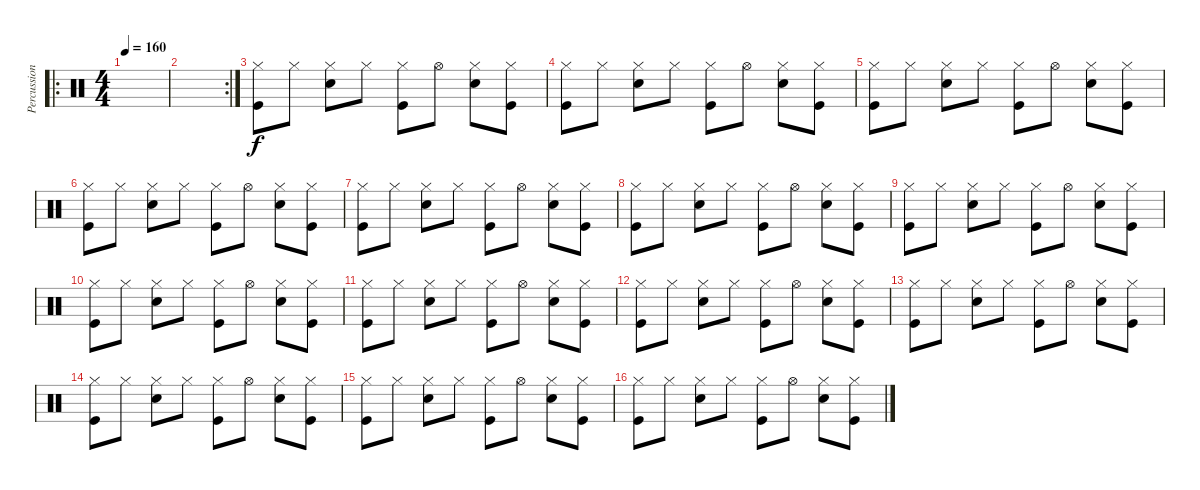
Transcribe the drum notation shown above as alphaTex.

\track ("Percussions" "Percussion") {instrument percussion}
\staff {score}
\articulation defaults
\ro
\ts (4 4)
\tempo 160
\clef neutral
\ks c
|
\rc 2
|
("Kick (hit)" "Hi-Hat (closed)").8 "Hi-Hat (closed)".8 ("Snare (hit) 2" "Hi-Hat (closed)").8 "Hi-Hat (closed)".8 ("Kick (hit)" "Hi-Hat (closed)").8 "Hi-Hat (open)".8 ("Snare (hit) 2" "Hi-Hat (closed)").8 ("Kick (hit)" "Hi-Hat (closed)").8 |
("Kick (hit)" "Hi-Hat (closed)").8 "Hi-Hat (closed)".8 ("Snare (hit) 2" "Hi-Hat (closed)").8 "Hi-Hat (closed)".8 ("Kick (hit)" "Hi-Hat (closed)").8 "Hi-Hat (open)".8 ("Snare (hit) 2" "Hi-Hat (closed)").8 ("Kick (hit)" "Hi-Hat (closed)").8 |
("Kick (hit)" "Hi-Hat (closed)").8 "Hi-Hat (closed)".8 ("Snare (hit) 2" "Hi-Hat (closed)").8 "Hi-Hat (closed)".8 ("Kick (hit)" "Hi-Hat (closed)").8 "Hi-Hat (open)".8 ("Snare (hit) 2" "Hi-Hat (closed)").8 ("Kick (hit)" "Hi-Hat (closed)").8 |
("Kick (hit)" "Hi-Hat (closed)").8 "Hi-Hat (closed)".8 ("Snare (hit) 2" "Hi-Hat (closed)").8 "Hi-Hat (closed)".8 ("Kick (hit)" "Hi-Hat (closed)").8 "Hi-Hat (open)".8 ("Snare (hit) 2" "Hi-Hat (closed)").8 ("Kick (hit)" "Hi-Hat (closed)").8 |
("Kick (hit)" "Hi-Hat (closed)").8 "Hi-Hat (closed)".8 ("Snare (hit) 2" "Hi-Hat (closed)").8 "Hi-Hat (closed)".8 ("Kick (hit)" "Hi-Hat (closed)").8 "Hi-Hat (open)".8 ("Snare (hit) 2" "Hi-Hat (closed)").8 ("Kick (hit)" "Hi-Hat (closed)").8 |
("Kick (hit)" "Hi-Hat (closed)").8 "Hi-Hat (closed)".8 ("Snare (hit) 2" "Hi-Hat (closed)").8 "Hi-Hat (closed)".8 ("Kick (hit)" "Hi-Hat (closed)").8 "Hi-Hat (open)".8 ("Snare (hit) 2" "Hi-Hat (closed)").8 ("Kick (hit)" "Hi-Hat (closed)").8 |
("Kick (hit)" "Hi-Hat (closed)").8 "Hi-Hat (closed)".8 ("Snare (hit) 2" "Hi-Hat (closed)").8 "Hi-Hat (closed)".8 ("Kick (hit)" "Hi-Hat (closed)").8 "Hi-Hat (open)".8 ("Snare (hit) 2" "Hi-Hat (closed)").8 ("Kick (hit)" "Hi-Hat (closed)").8 |
("Kick (hit)" "Hi-Hat (closed)").8 "Hi-Hat (closed)".8 ("Snare (hit) 2" "Hi-Hat (closed)").8 "Hi-Hat (closed)".8 ("Kick (hit)" "Hi-Hat (closed)").8 "Hi-Hat (open)".8 ("Snare (hit) 2" "Hi-Hat (closed)").8 ("Kick (hit)" "Hi-Hat (closed)").8 |
("Kick (hit)" "Hi-Hat (closed)").8 "Hi-Hat (closed)".8 ("Snare (hit) 2" "Hi-Hat (closed)").8 "Hi-Hat (closed)".8 ("Kick (hit)" "Hi-Hat (closed)").8 "Hi-Hat (open)".8 ("Snare (hit) 2" "Hi-Hat (closed)").8 ("Kick (hit)" "Hi-Hat (closed)").8 |
("Kick (hit)" "Hi-Hat (closed)").8 "Hi-Hat (closed)".8 ("Snare (hit) 2" "Hi-Hat (closed)").8 "Hi-Hat (closed)".8 ("Kick (hit)" "Hi-Hat (closed)").8 "Hi-Hat (open)".8 ("Snare (hit) 2" "Hi-Hat (closed)").8 ("Kick (hit)" "Hi-Hat (closed)").8 |
("Kick (hit)" "Hi-Hat (closed)").8 "Hi-Hat (closed)".8 ("Snare (hit) 2" "Hi-Hat (closed)").8 "Hi-Hat (closed)".8 ("Kick (hit)" "Hi-Hat (closed)").8 "Hi-Hat (open)".8 ("Snare (hit) 2" "Hi-Hat (closed)").8 ("Kick (hit)" "Hi-Hat (closed)").8 |
("Kick (hit)" "Hi-Hat (closed)").8 "Hi-Hat (closed)".8 ("Snare (hit) 2" "Hi-Hat (closed)").8 "Hi-Hat (closed)".8 ("Kick (hit)" "Hi-Hat (closed)").8 "Hi-Hat (open)".8 ("Snare (hit) 2" "Hi-Hat (closed)").8 ("Kick (hit)" "Hi-Hat (closed)").8 |
("Kick (hit)" "Hi-Hat (closed)").8 "Hi-Hat (closed)".8 ("Snare (hit) 2" "Hi-Hat (closed)").8 "Hi-Hat (closed)".8 ("Kick (hit)" "Hi-Hat (closed)").8 "Hi-Hat (open)".8 ("Snare (hit) 2" "Hi-Hat (closed)").8 ("Kick (hit)" "Hi-Hat (closed)").8 |
("Kick (hit)" "Hi-Hat (closed)").8 "Hi-Hat (closed)".8 ("Snare (hit) 2" "Hi-Hat (closed)").8 "Hi-Hat (closed)".8 ("Kick (hit)" "Hi-Hat (closed)").8 "Hi-Hat (open)".8 ("Snare (hit) 2" "Hi-Hat (closed)").8 ("Kick (hit)" "Hi-Hat (closed)").8
